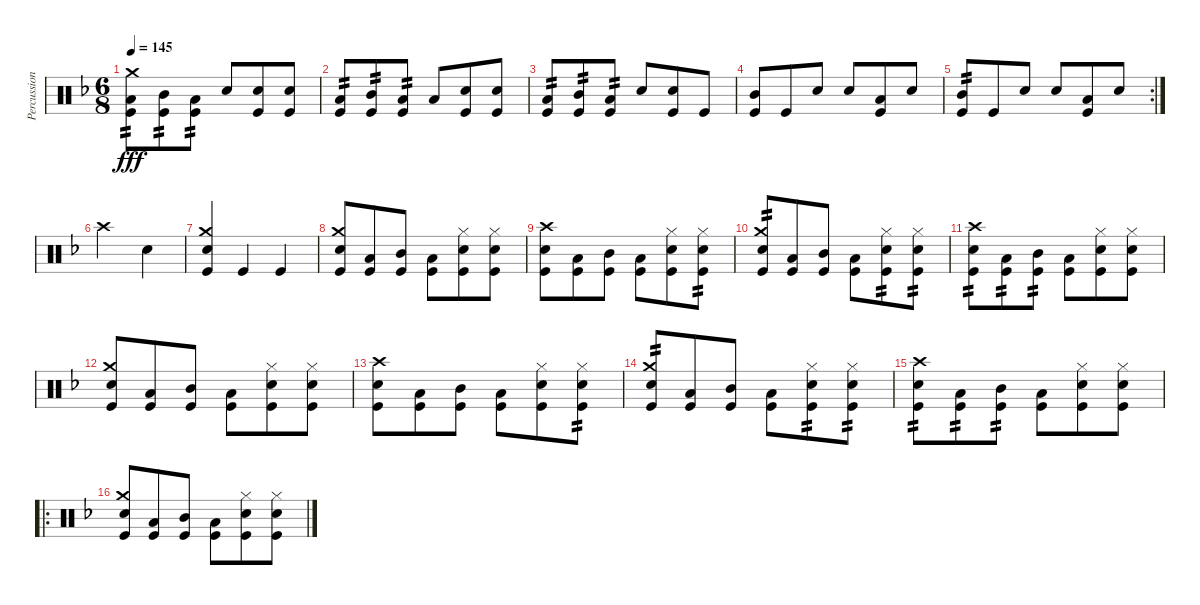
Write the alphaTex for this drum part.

\track ("Percussion" "Percussion") {instrument percussion}
\staff {score}
\articulation defaults
\ts (6 8)
\tempo 145
\clef neutral
\ks dminor
("Kick (hit)" "Low Floor Tom (hit)" "Crash medium (hit)").8{tp 2 dy fff} ("Kick (hit)" "Mid Tom (hit)").8{tp 2} ("Kick (hit)" "Low Tom (hit)").8{tp 2} "Electric Snare (hit)".8 ("Kick (hit)" "Electric Snare (hit)").8 ("Kick (hit)" "Electric Snare (hit)").8 |
("Kick (hit)" "Low Floor Tom (hit)").8{tp 2} ("Kick (hit)" "Mid Tom (hit)").8{tp 2} ("Kick (hit)" "Low Tom (hit)").8{tp 2} "Low Floor Tom (hit)".8 ("Kick (hit)" "Electric Snare (hit)").8 ("Kick (hit)" "Electric Snare (hit)").8 |
("Kick (hit)" "Low Floor Tom (hit)").8{tp 2} ("Kick (hit)" "Mid Tom (hit)").8{tp 2} ("Kick (hit)" "Low Tom (hit)").8{tp 2} "Electric Snare (hit)".8 ("Kick (hit)" "Electric Snare (hit)").8 "Kick (hit)".8 |
("Kick (hit)" "Mid Tom (hit)").8 "Kick (hit)".8 "Electric Snare (hit)".8 "Electric Snare (hit)".8 ("Kick (hit)" "Low Floor Tom (hit)").8 "Electric Snare (hit)".8 |
\rc 2
("Kick (hit)" "Mid Tom (hit)").8{tp 2} "Kick (hit)".8 "Electric Snare (hit)".8 "Electric Snare (hit)".8 ("Kick (hit)" "Low Floor Tom (hit)").8 "Electric Snare (hit)".8 |
"Crash high (hit)".2 "Electric Snare (hit)".4 |
("Kick (hit)" "Electric Snare (hit)" "Crash medium (hit)").4 "Kick (hit)".4 "Kick (hit)".4 |
("Kick (hit)" "Electric Snare (hit)" "Crash medium (hit)").8 ("Kick (hit)" "Low Tom (hit)").8 ("Kick (hit)" "Mid Tom (hit)").8 ("Kick (hit)" "Low Floor Tom (hit)").8 ("Kick (hit)" "Electric Snare (hit)" "Hi-Hat (closed)").8 ("Kick (hit)" "Electric Snare (hit)" "Hi-Hat (closed)").8 |
("Kick (hit)" "Electric Snare (hit)" "Crash high (hit)").8 ("Kick (hit)" "Low Tom (hit)").8 ("Kick (hit)" "Mid Tom (hit)").8 ("Kick (hit)" "Low Floor Tom (hit)").8 ("Kick (hit)" "Electric Snare (hit)" "Hi-Hat (closed)").8 ("Kick (hit)" "Electric Snare (hit)" "Hi-Hat (closed)").8{tp 2} |
("Kick (hit)" "Electric Snare (hit)" "Crash medium (hit)").8{tp 2} ("Kick (hit)" "Low Tom (hit)").8 ("Kick (hit)" "Mid Tom (hit)").8 ("Kick (hit)" "Low Floor Tom (hit)").8 ("Kick (hit)" "Electric Snare (hit)" "Hi-Hat (closed)").8{tp 2} ("Kick (hit)" "Electric Snare (hit)" "Hi-Hat (closed)").8{tp 2} |
("Kick (hit)" "Electric Snare (hit)" "Crash high (hit)").8{tp 2} ("Kick (hit)" "Low Tom (hit)").8{tp 2} ("Kick (hit)" "Mid Tom (hit)").8{tp 2} ("Kick (hit)" "Low Floor Tom (hit)").8 ("Kick (hit)" "Electric Snare (hit)" "Hi-Hat (closed)").8 ("Kick (hit)" "Electric Snare (hit)" "Hi-Hat (closed)").8 |
("Kick (hit)" "Electric Snare (hit)" "Crash medium (hit)").8 ("Kick (hit)" "Low Tom (hit)").8 ("Kick (hit)" "Mid Tom (hit)").8 ("Kick (hit)" "Low Floor Tom (hit)").8 ("Kick (hit)" "Electric Snare (hit)" "Hi-Hat (closed)").8 ("Kick (hit)" "Electric Snare (hit)" "Hi-Hat (closed)").8 |
("Kick (hit)" "Electric Snare (hit)" "Crash high (hit)").8 ("Kick (hit)" "Low Tom (hit)").8 ("Kick (hit)" "Mid Tom (hit)").8 ("Kick (hit)" "Low Floor Tom (hit)").8 ("Kick (hit)" "Electric Snare (hit)" "Hi-Hat (closed)").8 ("Kick (hit)" "Electric Snare (hit)" "Hi-Hat (closed)").8{tp 2} |
("Kick (hit)" "Electric Snare (hit)" "Crash medium (hit)").8{tp 2} ("Kick (hit)" "Low Tom (hit)").8 ("Kick (hit)" "Mid Tom (hit)").8 ("Kick (hit)" "Low Floor Tom (hit)").8 ("Kick (hit)" "Electric Snare (hit)" "Hi-Hat (closed)").8{tp 2} ("Kick (hit)" "Electric Snare (hit)" "Hi-Hat (closed)").8{tp 2} |
("Kick (hit)" "Electric Snare (hit)" "Crash high (hit)").8{tp 2} ("Kick (hit)" "Low Tom (hit)").8{tp 2} ("Kick (hit)" "Mid Tom (hit)").8{tp 2} ("Kick (hit)" "Low Floor Tom (hit)").8 ("Kick (hit)" "Electric Snare (hit)" "Hi-Hat (closed)").8 ("Kick (hit)" "Electric Snare (hit)" "Hi-Hat (closed)").8 |
\ro
("Kick (hit)" "Electric Snare (hit)" "Crash medium (hit)").8 ("Kick (hit)" "Low Tom (hit)").8 ("Kick (hit)" "Mid Tom (hit)").8 ("Kick (hit)" "Low Floor Tom (hit)").8 ("Kick (hit)" "Electric Snare (hit)" "Hi-Hat (closed)").8 ("Kick (hit)" "Electric Snare (hit)" "Hi-Hat (closed)").8
